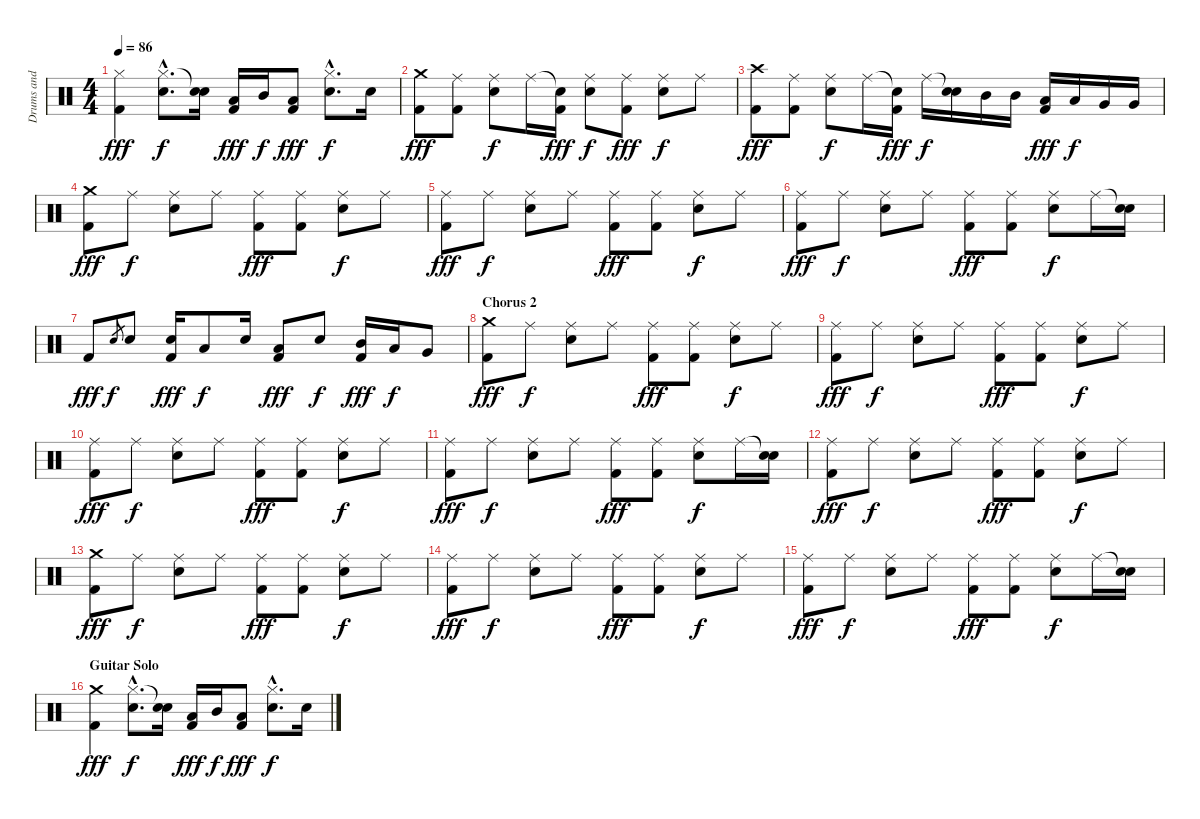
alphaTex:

\track ("Drums and Percussion" "Drums and ") {instrument percussion}
\staff {score}
\articulation defaults
\ts (4 4)
\tempo 86
\clef neutral
\ks c
("Hi-Hat (closed)" "Kick (hit) 2").4{dy fff} ("Hi-Hat (closed)"{hac} "Snare (hit) 2"{hac}).8{d dy f} ("Snare (hit)"{t} "Snare (hit) 2").16 ("Low Tom (hit)" "Kick (hit) 2").16{dy fff} "Mid Tom (hit)".16{dy f} ("Low Tom (hit)" "Kick (hit) 2").8{dy fff} ("Hi-Hat (closed)"{hac} "Snare (hit) 2"{hac}).8{d dy f} "Snare (hit) 2".16 |
("Crash medium (hit)" "Kick (hit) 2").8{dy fff} ("Ride (middle)" "Kick (hit) 2").8 ("Ride (middle)" "Snare (hit) 2").8{dy f} "Ride (middle)".16 ("Snare (hit)"{t} "Kick (hit) 2").16{dy fff} ("Ride (middle)" "Snare (hit) 2").8{dy f} ("Ride (middle)" "Kick (hit) 2").8{dy fff} ("Ride (middle)" "Snare (hit) 2").8{dy f} "Ride (middle)".8 |
("Crash high (hit)" "Kick (hit) 2").8{dy fff} ("Ride (middle)" "Kick (hit) 2").8 ("Ride (middle)" "Snare (hit) 2").8{dy f} "Ride (middle)".16 ("Snare (hit)"{t} "Kick (hit) 2").16{dy fff} "Ride (middle)".16{dy f} ("Snare (hit)"{t} "Snare (hit) 2").16 "Mid Tom (hit)".16 "Mid Tom (hit)".16 ("Low Tom (hit)" "Kick (hit) 2").16{dy fff} "Low Tom (hit)".16{dy f} "Very Low Tom (hit)".16 "Very Low Tom (hit)".16 |
("Crash medium (hit)" "Kick (hit) 2").8{dy fff} "Ride (middle)".8{dy f} ("Ride (middle)" "Snare (hit) 2").8 "Ride (middle)".8 ("Ride (middle)" "Kick (hit) 2").8{dy fff} ("Ride (middle)" "Kick (hit) 2").8 ("Ride (middle)" "Snare (hit) 2").8{dy f} "Ride (middle)".8 |
("Ride (middle)" "Kick (hit) 2").8{dy fff} "Ride (middle)".8{dy f} ("Ride (middle)" "Snare (hit) 2").8 "Ride (middle)".8 ("Ride (middle)" "Kick (hit) 2").8{dy fff} ("Ride (middle)" "Kick (hit) 2").8 ("Ride (middle)" "Snare (hit) 2").8{dy f} "Ride (middle)".8 |
("Ride (middle)" "Kick (hit) 2").8{dy fff} "Ride (middle)".8{dy f} ("Ride (middle)" "Snare (hit) 2").8 "Ride (middle)".8 ("Ride (middle)" "Kick (hit) 2").8{dy fff} ("Ride (middle)" "Kick (hit) 2").8 ("Ride (middle)" "Snare (hit) 2").8{dy f} "Ride (middle)".16 ("Snare (hit)"{t} "Snare (hit) 2").16 |
"Kick (hit) 2".8{dy fff} "Snare (hit) 2".8{gr dy f} "Snare (hit) 2".8 ("Snare (hit) 2" "Kick (hit) 2").16{dy fff} "Low Tom (hit)".8{dy f} "Snare (hit) 2".16 ("Low Tom (hit)" "Kick (hit) 2").8{dy fff} "Snare (hit) 2".8{dy f} ("Mid Tom (hit)" "Kick (hit) 2").16{dy fff} "Low Tom (hit)".16{dy f} "Very Low Tom (hit)".8 |
\section ("" "Chorus 2")
("Crash medium (hit)" "Kick (hit) 2").8{dy fff} "Ride (middle)".8{dy f} ("Ride (middle)" "Snare (hit) 2").8 "Ride (middle)".8 ("Ride (middle)" "Kick (hit) 2").8{dy fff} ("Ride (middle)" "Kick (hit) 2").8 ("Ride (middle)" "Snare (hit) 2").8{dy f} "Ride (middle)".8 |
("Ride (middle)" "Kick (hit) 2").8{dy fff} "Ride (middle)".8{dy f} ("Ride (middle)" "Snare (hit) 2").8 "Ride (middle)".8 ("Ride (middle)" "Kick (hit) 2").8{dy fff} ("Ride (middle)" "Kick (hit) 2").8 ("Ride (middle)" "Snare (hit) 2").8{dy f} "Ride (middle)".8 |
("Ride (middle)" "Kick (hit) 2").8{dy fff} "Ride (middle)".8{dy f} ("Ride (middle)" "Snare (hit) 2").8 "Ride (middle)".8 ("Ride (middle)" "Kick (hit) 2").8{dy fff} ("Ride (middle)" "Kick (hit) 2").8 ("Ride (middle)" "Snare (hit) 2").8{dy f} "Ride (middle)".8 |
("Ride (middle)" "Kick (hit) 2").8{dy fff} "Ride (middle)".8{dy f} ("Ride (middle)" "Snare (hit) 2").8 "Ride (middle)".8 ("Ride (middle)" "Kick (hit) 2").8{dy fff} ("Ride (middle)" "Kick (hit) 2").8 ("Ride (middle)" "Snare (hit) 2").8{dy f} "Ride (middle)".16 ("Snare (hit)"{t} "Snare (hit) 2").16 |
("Ride (middle)" "Kick (hit) 2").8{dy fff} "Ride (middle)".8{dy f} ("Ride (middle)" "Snare (hit) 2").8 "Ride (middle)".8 ("Ride (middle)" "Kick (hit) 2").8{dy fff} ("Ride (middle)" "Kick (hit) 2").8 ("Ride (middle)" "Snare (hit) 2").8{dy f} "Ride (middle)".8 |
("Crash medium (hit)" "Kick (hit) 2").8{dy fff} "Ride (middle)".8{dy f} ("Ride (middle)" "Snare (hit) 2").8 "Ride (middle)".8 ("Ride (middle)" "Kick (hit) 2").8{dy fff} ("Ride (middle)" "Kick (hit) 2").8 ("Ride (middle)" "Snare (hit) 2").8{dy f} "Ride (middle)".8 |
("Ride (middle)" "Kick (hit) 2").8{dy fff} "Ride (middle)".8{dy f} ("Ride (middle)" "Snare (hit) 2").8 "Ride (middle)".8 ("Ride (middle)" "Kick (hit) 2").8{dy fff} ("Ride (middle)" "Kick (hit) 2").8 ("Ride (middle)" "Snare (hit) 2").8{dy f} "Ride (middle)".8 |
("Ride (middle)" "Kick (hit) 2").8{dy fff} "Ride (middle)".8{dy f} ("Ride (middle)" "Snare (hit) 2").8 "Ride (middle)".8 ("Ride (middle)" "Kick (hit) 2").8{dy fff} ("Ride (middle)" "Kick (hit) 2").8 ("Ride (middle)" "Snare (hit) 2").8{dy f} "Ride (middle)".16 ("Snare (hit)"{t} "Snare (hit) 2").16 |
\section ("" "Guitar Solo")
("Crash medium (hit)" "Kick (hit) 2").4{dy fff} ("Hi-Hat (closed)"{hac} "Snare (hit) 2"{hac}).8{d dy f} ("Snare (hit)"{t} "Snare (hit) 2").16 ("Low Tom (hit)" "Kick (hit) 2").16{dy fff} "Mid Tom (hit)".16{dy f} ("Low Tom (hit)" "Kick (hit) 2").8{dy fff} ("Hi-Hat (closed)"{hac} "Snare (hit) 2"{hac}).8{d dy f} "Snare (hit) 2".16
